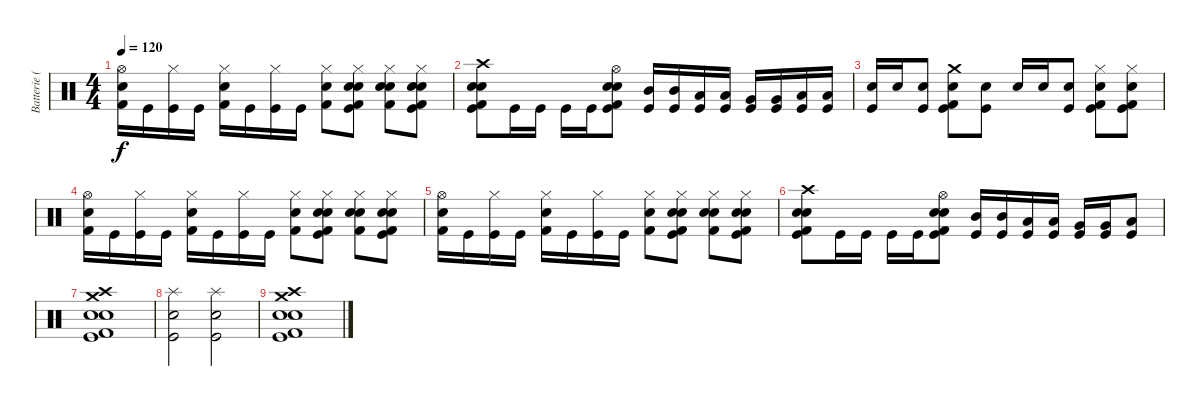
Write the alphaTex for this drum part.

\track ("Batterie (Ced)" "Batterie (") {instrument percussion}
\staff {score}
\articulation defaults
\ts (4 4)
\tempo 120
\clef neutral
\ks c
("Hi-Hat (open)" "Electric Snare (hit)" "Kick (hit) 2").16{dy f} "Kick (hit)".16 ("Hi-Hat (closed)" "Kick (hit)").16 "Kick (hit)".16 ("Hi-Hat (closed)" "Electric Snare (hit)" "Kick (hit) 2").16 "Kick (hit)".16 ("Hi-Hat (closed)" "Kick (hit)").16 "Kick (hit)".16 ("Hi-Hat (closed)" "Electric Snare (hit)" "Kick (hit) 2").8 ("Hi-Hat (closed)" "Snare (hit) 2" "Electric Snare (hit)" "Kick (hit) 2" "Kick (hit)").8 ("Hi-Hat (closed)" "Snare (hit) 2" "Electric Snare (hit)" "Kick (hit) 2").8 ("Hi-Hat (closed)" "Snare (hit) 2" "Electric Snare (hit)" "Kick (hit) 2" "Kick (hit)").8 |
("Crash high (hit)" "Snare (hit) 2" "Electric Snare (hit)" "Kick (hit)" "Kick (hit) 2").8 "Kick (hit)".16 "Kick (hit)".16 "Kick (hit)".16 "Kick (hit)".16 ("Hi-Hat (open)" "Snare (hit) 2" "Electric Snare (hit)" "Kick (hit)" "Kick (hit) 2").8 ("Mid Tom (hit)" "Kick (hit)").16 ("Mid Tom (hit)" "Kick (hit)").16 ("Low Tom (hit)" "Kick (hit)").16 ("Low Tom (hit)" "Kick (hit)").16 ("Very Low Tom (hit)" "Kick (hit)").16 ("Very Low Tom (hit)" "Kick (hit)").16 ("Low Floor Tom (hit)" "Kick (hit)").16 ("Low Floor Tom (hit)" "Kick (hit)").16 |
("Snare (hit) 2" "Kick (hit)").16 "Snare (hit) 2".16 ("Snare (hit) 2" "Kick (hit)").8 ("Crash medium (hit)" "Electric Snare (hit)" "Kick (hit) 2" "Kick (hit)").8 ("Snare (hit) 2" "Kick (hit)").8 "Snare (hit) 2".16 "Snare (hit) 2".16 ("Snare (hit) 2" "Kick (hit)").8 ("Hi-Hat (closed)" "Electric Snare (hit)" "Kick (hit) 2" "Kick (hit)").8 ("Hi-Hat (closed)" "Electric Snare (hit)" "Kick (hit) 2" "Kick (hit)").8 |
("Hi-Hat (open)" "Electric Snare (hit)" "Kick (hit) 2").16 "Kick (hit)".16 ("Hi-Hat (closed)" "Kick (hit)").16 "Kick (hit)".16 ("Hi-Hat (closed)" "Electric Snare (hit)" "Kick (hit) 2").16 "Kick (hit)".16 ("Hi-Hat (closed)" "Kick (hit)").16 "Kick (hit)".16 ("Hi-Hat (closed)" "Electric Snare (hit)" "Kick (hit) 2").8 ("Hi-Hat (closed)" "Snare (hit) 2" "Electric Snare (hit)" "Kick (hit) 2" "Kick (hit)").8 ("Hi-Hat (closed)" "Snare (hit) 2" "Electric Snare (hit)" "Kick (hit) 2").8 ("Hi-Hat (closed)" "Snare (hit) 2" "Electric Snare (hit)" "Kick (hit) 2" "Kick (hit)").8 |
("Hi-Hat (open)" "Electric Snare (hit)" "Kick (hit) 2").16 "Kick (hit)".16 ("Hi-Hat (closed)" "Kick (hit)").16 "Kick (hit)".16 ("Hi-Hat (closed)" "Electric Snare (hit)" "Kick (hit) 2").16 "Kick (hit)".16 ("Hi-Hat (closed)" "Kick (hit)").16 "Kick (hit)".16 ("Hi-Hat (closed)" "Electric Snare (hit)" "Kick (hit) 2").8 ("Hi-Hat (closed)" "Snare (hit) 2" "Electric Snare (hit)" "Kick (hit) 2" "Kick (hit)").8 ("Hi-Hat (closed)" "Snare (hit) 2" "Electric Snare (hit)" "Kick (hit) 2").8 ("Hi-Hat (closed)" "Snare (hit) 2" "Electric Snare (hit)" "Kick (hit) 2" "Kick (hit)").8 |
("Crash high (hit)" "Snare (hit) 2" "Electric Snare (hit)" "Kick (hit)" "Kick (hit) 2").8 "Kick (hit)".16 "Kick (hit)".16 "Kick (hit)".16 "Kick (hit)".16 ("Hi-Hat (open)" "Snare (hit) 2" "Electric Snare (hit)" "Kick (hit)" "Kick (hit) 2").8 ("Mid Tom (hit)" "Kick (hit)").16 ("Mid Tom (hit)" "Kick (hit)").16 ("Low Tom (hit)" "Kick (hit)").16 ("Low Tom (hit)" "Kick (hit)").16 ("Very Low Tom (hit)" "Kick (hit)").16 ("Very Low Tom (hit)" "Kick (hit)").16 ("Low Floor Tom (hit)" "Kick (hit)").8 |
("Crash medium (hit)" "Snare (hit) 2" "Electric Snare (hit)" "Crash high (hit)" "Kick (hit)" "Kick (hit) 2").1 |
("Snare (hit) 2" "Splash (hit)" "Kick (hit)").2 ("Snare (hit) 2" "Splash (hit)" "Kick (hit)").2 |
("Crash medium (hit)" "Snare (hit) 2" "Electric Snare (hit)" "Crash high (hit)" "Kick (hit) 2" "Kick (hit)").1
